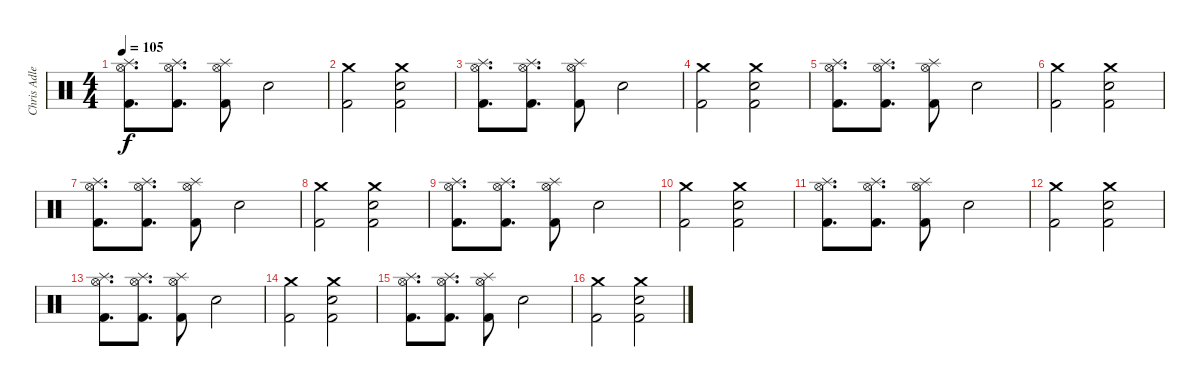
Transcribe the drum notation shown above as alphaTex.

\track ("Chris Adler" "Chris Adle") {instrument percussion}
\staff {score}
\articulation defaults
\ts (4 4)
\tempo 105
\clef neutral
\ks c
("Splash (hit)" "Hi-Hat (open)" "Kick (hit) 2").8{d dy f} ("Splash (hit)" "Hi-Hat (open)" "Kick (hit) 2").8{d} ("Splash (hit)" "Hi-Hat (open)" "Kick (hit) 2").8 "Electric Snare (hit)".2 |
("Crash medium (hit)" "Kick (hit) 2").2 ("Crash medium (hit)" "Electric Snare (hit)" "Kick (hit) 2").2 |
("Splash (hit)" "Hi-Hat (open)" "Kick (hit) 2").8{d} ("Splash (hit)" "Hi-Hat (open)" "Kick (hit) 2").8{d} ("Splash (hit)" "Hi-Hat (open)" "Kick (hit) 2").8 "Electric Snare (hit)".2 |
("Crash medium (hit)" "Kick (hit) 2").2 ("Crash medium (hit)" "Electric Snare (hit)" "Kick (hit) 2").2 |
("Splash (hit)" "Hi-Hat (open)" "Kick (hit) 2").8{d} ("Splash (hit)" "Hi-Hat (open)" "Kick (hit) 2").8{d} ("Splash (hit)" "Hi-Hat (open)" "Kick (hit) 2").8 "Electric Snare (hit)".2 |
("Crash medium (hit)" "Kick (hit) 2").2 ("Crash medium (hit)" "Electric Snare (hit)" "Kick (hit) 2").2 |
("Splash (hit)" "Hi-Hat (open)" "Kick (hit) 2").8{d} ("Splash (hit)" "Hi-Hat (open)" "Kick (hit) 2").8{d} ("Splash (hit)" "Hi-Hat (open)" "Kick (hit) 2").8 "Electric Snare (hit)".2 |
("Crash medium (hit)" "Kick (hit) 2").2 ("Crash medium (hit)" "Electric Snare (hit)" "Kick (hit) 2").2 |
("Splash (hit)" "Hi-Hat (open)" "Kick (hit) 2").8{d} ("Splash (hit)" "Hi-Hat (open)" "Kick (hit) 2").8{d} ("Splash (hit)" "Hi-Hat (open)" "Kick (hit) 2").8 "Electric Snare (hit)".2 |
("Crash medium (hit)" "Kick (hit) 2").2 ("Crash medium (hit)" "Electric Snare (hit)" "Kick (hit) 2").2 |
("Splash (hit)" "Hi-Hat (open)" "Kick (hit) 2").8{d} ("Splash (hit)" "Hi-Hat (open)" "Kick (hit) 2").8{d} ("Splash (hit)" "Hi-Hat (open)" "Kick (hit) 2").8 "Electric Snare (hit)".2 |
("Crash medium (hit)" "Kick (hit) 2").2 ("Crash medium (hit)" "Electric Snare (hit)" "Kick (hit) 2").2 |
("Splash (hit)" "Hi-Hat (open)" "Kick (hit) 2").8{d} ("Splash (hit)" "Hi-Hat (open)" "Kick (hit) 2").8{d} ("Splash (hit)" "Hi-Hat (open)" "Kick (hit) 2").8 "Electric Snare (hit)".2 |
("Crash medium (hit)" "Kick (hit) 2").2 ("Crash medium (hit)" "Electric Snare (hit)" "Kick (hit) 2").2 |
("Splash (hit)" "Hi-Hat (open)" "Kick (hit) 2").8{d} ("Splash (hit)" "Hi-Hat (open)" "Kick (hit) 2").8{d} ("Splash (hit)" "Hi-Hat (open)" "Kick (hit) 2").8 "Electric Snare (hit)".2 |
("Crash medium (hit)" "Kick (hit) 2").2 ("Crash medium (hit)" "Electric Snare (hit)" "Kick (hit) 2").2
